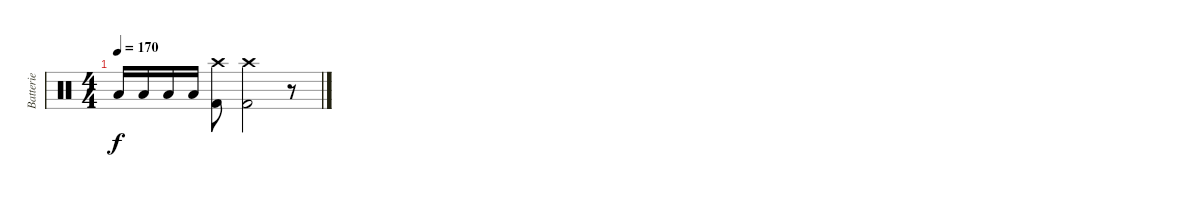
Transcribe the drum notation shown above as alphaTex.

\track ("Batterie" "Batterie") {instrument percussion}
\staff {score}
\articulation defaults
\ts (4 4)
\tempo 170
\clef neutral
\ks c "Low Floor Tom (hit)".16{dy f} "Low Floor Tom (hit)".16 "Low Floor Tom (hit)".16 "Low Floor Tom (hit)".16
("Crash high (hit)" "Kick (hit) 2").8 ("Crash high (hit)" "Kick (hit) 2").2 r.8
